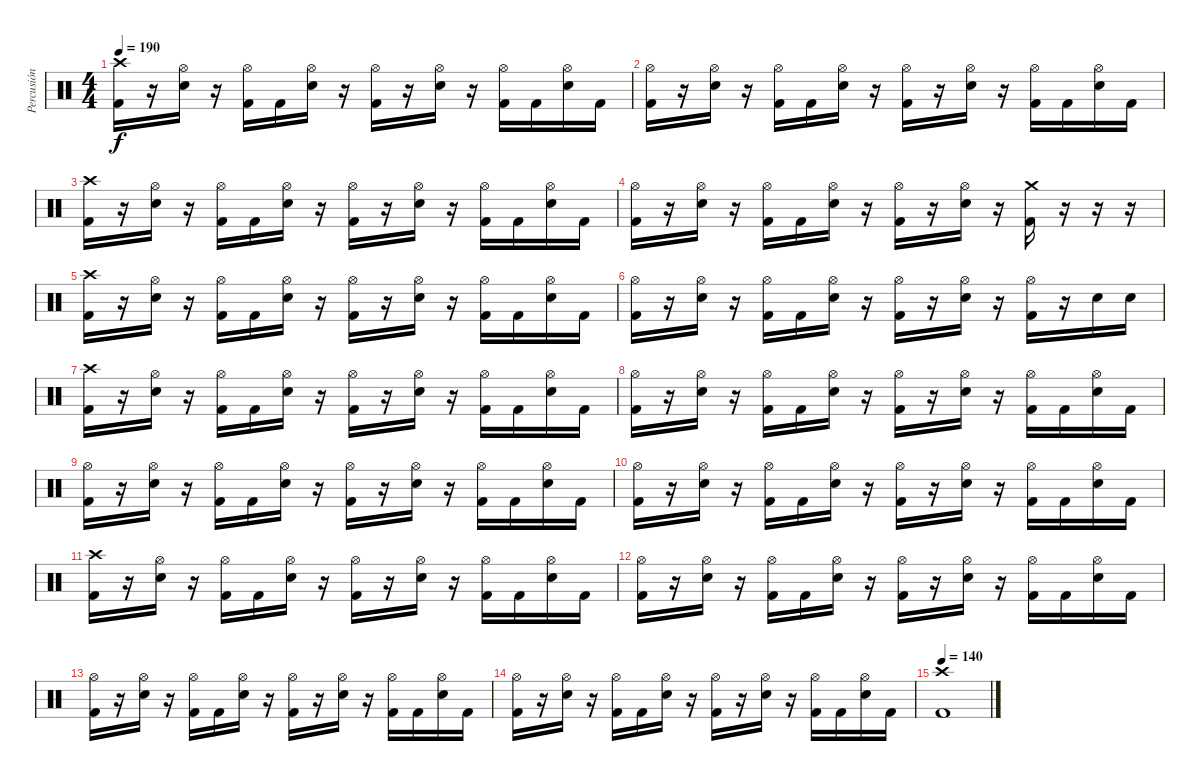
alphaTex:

\track ("Percusión" "Percusión") {instrument percussion}
\staff {score}
\articulation defaults
\ts (4 4)
\tempo 190
\clef neutral
\ks c
("Crash high (hit)" "Kick (hit) 2").16{dy f} r.16 ("Hi-Hat (open)" "Electric Snare (hit)").16 r.16 ("Hi-Hat (open)" "Kick (hit) 2").16 "Kick (hit) 2".16 ("Hi-Hat (open)" "Electric Snare (hit)").16 r.16 ("Hi-Hat (open)" "Kick (hit) 2").16 r.16 ("Hi-Hat (open)" "Electric Snare (hit)").16 r.16 ("Hi-Hat (open)" "Kick (hit) 2").16 "Kick (hit) 2".16 ("Hi-Hat (open)" "Electric Snare (hit)").16 "Kick (hit) 2".16 |
("Hi-Hat (open)" "Kick (hit) 2").16 r.16 ("Hi-Hat (open)" "Electric Snare (hit)").16 r.16 ("Hi-Hat (open)" "Kick (hit) 2").16 "Kick (hit) 2".16 ("Hi-Hat (open)" "Electric Snare (hit)").16 r.16 ("Hi-Hat (open)" "Kick (hit) 2").16 r.16 ("Hi-Hat (open)" "Electric Snare (hit)").16 r.16 ("Hi-Hat (open)" "Kick (hit) 2").16 "Kick (hit) 2".16 ("Hi-Hat (open)" "Electric Snare (hit)").16 "Kick (hit) 2".16 |
("Crash high (hit)" "Kick (hit) 2").16 r.16 ("Hi-Hat (open)" "Electric Snare (hit)").16 r.16 ("Hi-Hat (open)" "Kick (hit) 2").16 "Kick (hit) 2".16 ("Hi-Hat (open)" "Electric Snare (hit)").16 r.16 ("Hi-Hat (open)" "Kick (hit) 2").16 r.16 ("Hi-Hat (open)" "Electric Snare (hit)").16 r.16 ("Hi-Hat (open)" "Kick (hit) 2").16 "Kick (hit) 2".16 ("Hi-Hat (open)" "Electric Snare (hit)").16 "Kick (hit) 2".16 |
("Hi-Hat (open)" "Kick (hit) 2").16 r.16 ("Hi-Hat (open)" "Electric Snare (hit)").16 r.16 ("Hi-Hat (open)" "Kick (hit) 2").16 "Kick (hit) 2".16 ("Hi-Hat (open)" "Electric Snare (hit)").16 r.16 ("Hi-Hat (open)" "Kick (hit) 2").16 r.16 ("Hi-Hat (open)" "Electric Snare (hit)").16 r.16 ("Crash medium (hit)" "Kick (hit) 2").16 r.16 r.16 r.16 |
("Crash high (hit)" "Kick (hit) 2").16 r.16 ("Hi-Hat (open)" "Electric Snare (hit)").16 r.16 ("Hi-Hat (open)" "Kick (hit) 2").16 "Kick (hit) 2".16 ("Hi-Hat (open)" "Electric Snare (hit)").16 r.16 ("Hi-Hat (open)" "Kick (hit) 2").16 r.16 ("Hi-Hat (open)" "Electric Snare (hit)").16 r.16 ("Hi-Hat (open)" "Kick (hit) 2").16 "Kick (hit) 2".16 ("Hi-Hat (open)" "Electric Snare (hit)").16 "Kick (hit) 2".16 |
("Hi-Hat (open)" "Kick (hit) 2").16 r.16 ("Hi-Hat (open)" "Electric Snare (hit)").16 r.16 ("Hi-Hat (open)" "Kick (hit) 2").16 "Kick (hit) 2".16 ("Hi-Hat (open)" "Electric Snare (hit)").16 r.16 ("Hi-Hat (open)" "Kick (hit) 2").16 r.16 ("Hi-Hat (open)" "Electric Snare (hit)").16 r.16 ("Hi-Hat (open)" "Kick (hit) 2").16 r.16 "Electric Snare (hit)".16 "Electric Snare (hit)".16 |
("Crash high (hit)" "Kick (hit) 2").16 r.16 ("Hi-Hat (open)" "Electric Snare (hit)").16 r.16 ("Hi-Hat (open)" "Kick (hit) 2").16 "Kick (hit) 2".16 ("Hi-Hat (open)" "Electric Snare (hit)").16 r.16 ("Hi-Hat (open)" "Kick (hit) 2").16 r.16 ("Hi-Hat (open)" "Electric Snare (hit)").16 r.16 ("Hi-Hat (open)" "Kick (hit) 2").16 "Kick (hit) 2".16 ("Hi-Hat (open)" "Electric Snare (hit)").16 "Kick (hit) 2".16 |
("Hi-Hat (open)" "Kick (hit) 2").16 r.16 ("Hi-Hat (open)" "Electric Snare (hit)").16 r.16 ("Hi-Hat (open)" "Kick (hit) 2").16 "Kick (hit) 2".16 ("Hi-Hat (open)" "Electric Snare (hit)").16 r.16 ("Hi-Hat (open)" "Kick (hit) 2").16 r.16 ("Hi-Hat (open)" "Electric Snare (hit)").16 r.16 ("Hi-Hat (open)" "Kick (hit) 2").16 "Kick (hit) 2".16 ("Hi-Hat (open)" "Electric Snare (hit)").16 "Kick (hit) 2".16 |
("Hi-Hat (open)" "Kick (hit) 2").16 r.16 ("Hi-Hat (open)" "Electric Snare (hit)").16 r.16 ("Hi-Hat (open)" "Kick (hit) 2").16 "Kick (hit) 2".16 ("Hi-Hat (open)" "Electric Snare (hit)").16 r.16 ("Hi-Hat (open)" "Kick (hit) 2").16 r.16 ("Hi-Hat (open)" "Electric Snare (hit)").16 r.16 ("Hi-Hat (open)" "Kick (hit) 2").16 "Kick (hit) 2".16 ("Hi-Hat (open)" "Electric Snare (hit)").16 "Kick (hit) 2".16 |
("Hi-Hat (open)" "Kick (hit) 2").16 r.16 ("Hi-Hat (open)" "Electric Snare (hit)").16 r.16 ("Hi-Hat (open)" "Kick (hit) 2").16 "Kick (hit) 2".16 ("Hi-Hat (open)" "Electric Snare (hit)").16 r.16 ("Hi-Hat (open)" "Kick (hit) 2").16 r.16 ("Hi-Hat (open)" "Electric Snare (hit)").16 r.16 ("Hi-Hat (open)" "Kick (hit) 2").16 "Kick (hit) 2".16 ("Hi-Hat (open)" "Electric Snare (hit)").16 "Kick (hit) 2".16 |
("Crash high (hit)" "Kick (hit) 2").16 r.16 ("Hi-Hat (open)" "Electric Snare (hit)").16 r.16 ("Hi-Hat (open)" "Kick (hit) 2").16 "Kick (hit) 2".16 ("Hi-Hat (open)" "Electric Snare (hit)").16 r.16 ("Hi-Hat (open)" "Kick (hit) 2").16 r.16 ("Hi-Hat (open)" "Electric Snare (hit)").16 r.16 ("Hi-Hat (open)" "Kick (hit) 2").16 "Kick (hit) 2".16 ("Hi-Hat (open)" "Electric Snare (hit)").16 "Kick (hit) 2".16 |
("Hi-Hat (open)" "Kick (hit) 2").16 r.16 ("Hi-Hat (open)" "Electric Snare (hit)").16 r.16 ("Hi-Hat (open)" "Kick (hit) 2").16 "Kick (hit) 2".16 ("Hi-Hat (open)" "Electric Snare (hit)").16 r.16 ("Hi-Hat (open)" "Kick (hit) 2").16 r.16 ("Hi-Hat (open)" "Electric Snare (hit)").16 r.16 ("Hi-Hat (open)" "Kick (hit) 2").16 "Kick (hit) 2".16 ("Hi-Hat (open)" "Electric Snare (hit)").16 "Kick (hit) 2".16 |
("Hi-Hat (open)" "Kick (hit) 2").16 r.16 ("Hi-Hat (open)" "Electric Snare (hit)").16 r.16 ("Hi-Hat (open)" "Kick (hit) 2").16 "Kick (hit) 2".16 ("Hi-Hat (open)" "Electric Snare (hit)").16 r.16 ("Hi-Hat (open)" "Kick (hit) 2").16 r.16 ("Hi-Hat (open)" "Electric Snare (hit)").16 r.16 ("Hi-Hat (open)" "Kick (hit) 2").16 "Kick (hit) 2".16 ("Hi-Hat (open)" "Electric Snare (hit)").16 "Kick (hit) 2".16 |
("Hi-Hat (open)" "Kick (hit) 2").16 r.16 ("Hi-Hat (open)" "Electric Snare (hit)").16 r.16 ("Hi-Hat (open)" "Kick (hit) 2").16 "Kick (hit) 2".16 ("Hi-Hat (open)" "Electric Snare (hit)").16 r.16 ("Hi-Hat (open)" "Kick (hit) 2").16 r.16 ("Hi-Hat (open)" "Electric Snare (hit)").16 r.16 ("Hi-Hat (open)" "Kick (hit) 2").16 "Kick (hit) 2".16 ("Hi-Hat (open)" "Electric Snare (hit)").16 "Kick (hit) 2".16 |
\tempo 140
("Crash high (hit)" "Kick (hit) 2").1
